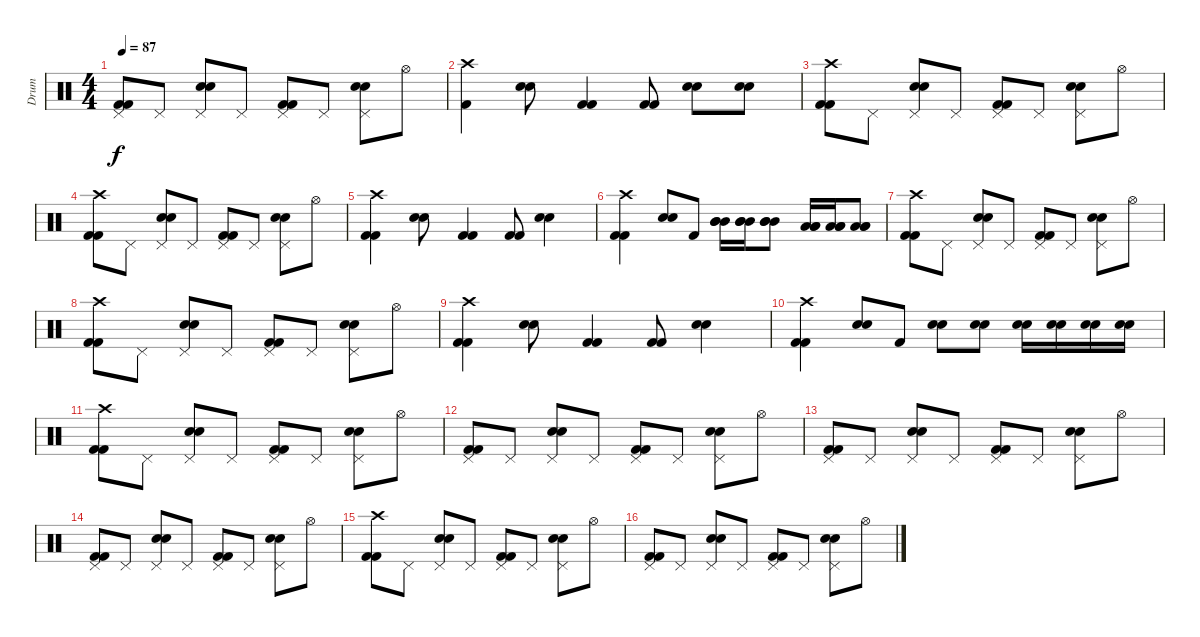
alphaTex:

\track ("Drum" "Drum") {instrument percussion}
\staff {score}
\articulation defaults
\ts (4 4)
\tempo 87
\clef neutral
\ks c
("Pedal Hi-Hat (hit)" "Kick (hit) 2" "Kick (hit) 2").8{dy f} "Pedal Hi-Hat (hit)".8 ("Pedal Hi-Hat (hit)" "Electric Snare (hit)" "Electric Snare (hit)").8 "Pedal Hi-Hat (hit)".8 ("Pedal Hi-Hat (hit)" "Kick (hit) 2" "Kick (hit) 2").8 "Pedal Hi-Hat (hit)".8 ("Pedal Hi-Hat (hit)" "Electric Snare (hit)" "Electric Snare (hit)").8 "Hi-Hat (open)".8 |
("Crash high (hit)" "Kick (hit) 2").4 ("Electric Snare (hit)" "Electric Snare (hit)").8 ("Kick (hit) 2" "Kick (hit) 2").4 ("Kick (hit) 2" "Kick (hit) 2").8 ("Electric Snare (hit)" "Electric Snare (hit)").8 ("Electric Snare (hit)" "Electric Snare (hit)").8 |
("Crash high (hit)" "Kick (hit) 2" "Kick (hit) 2").8 "Pedal Hi-Hat (hit)".8 ("Pedal Hi-Hat (hit)" "Electric Snare (hit)" "Electric Snare (hit)").8 "Pedal Hi-Hat (hit)".8 ("Pedal Hi-Hat (hit)" "Kick (hit) 2" "Kick (hit) 2").8 "Pedal Hi-Hat (hit)".8 ("Pedal Hi-Hat (hit)" "Electric Snare (hit)" "Electric Snare (hit)").8 "Hi-Hat (open)".8 |
("Crash high (hit)" "Kick (hit) 2" "Kick (hit) 2").8 "Pedal Hi-Hat (hit)".8 ("Pedal Hi-Hat (hit)" "Electric Snare (hit)" "Electric Snare (hit)").8 "Pedal Hi-Hat (hit)".8 ("Pedal Hi-Hat (hit)" "Kick (hit) 2" "Kick (hit) 2").8 "Pedal Hi-Hat (hit)".8 ("Pedal Hi-Hat (hit)" "Electric Snare (hit)" "Electric Snare (hit)").8 "Hi-Hat (open)".8 |
("Crash high (hit)" "Kick (hit) 2" "Kick (hit) 2").4 ("Electric Snare (hit)" "Electric Snare (hit)").8 ("Kick (hit) 2" "Kick (hit) 2").4 ("Kick (hit) 2" "Kick (hit) 2").8 ("Electric Snare (hit)" "Electric Snare (hit)").4 |
("Crash high (hit)" "Kick (hit) 2" "Kick (hit) 2").4 ("Electric Snare (hit)" "Electric Snare (hit)").8 "Kick (hit) 2".8 ("Mid Tom (hit)" "Mid Tom (hit)" "Mid Tom (hit)").16 ("Mid Tom (hit)" "Mid Tom (hit)" "Mid Tom (hit)").16 ("Mid Tom (hit)" "Mid Tom (hit)" "Mid Tom (hit)").8 ("Low Tom (hit)" "Low Tom (hit)" "Low Tom (hit)").16 ("Low Tom (hit)" "Low Tom (hit)" "Low Tom (hit)").16 ("Low Tom (hit)" "Low Tom (hit)" "Low Tom (hit)").8 |
("Crash high (hit)" "Kick (hit) 2" "Kick (hit) 2").8 "Pedal Hi-Hat (hit)".8 ("Pedal Hi-Hat (hit)" "Electric Snare (hit)" "Electric Snare (hit)").8 "Pedal Hi-Hat (hit)".8 ("Pedal Hi-Hat (hit)" "Kick (hit) 2" "Kick (hit) 2").8 "Pedal Hi-Hat (hit)".8 ("Pedal Hi-Hat (hit)" "Electric Snare (hit)" "Electric Snare (hit)").8 "Hi-Hat (open)".8 |
("Crash high (hit)" "Kick (hit) 2" "Kick (hit) 2").8 "Pedal Hi-Hat (hit)".8 ("Pedal Hi-Hat (hit)" "Electric Snare (hit)" "Electric Snare (hit)").8 "Pedal Hi-Hat (hit)".8 ("Pedal Hi-Hat (hit)" "Kick (hit) 2" "Kick (hit) 2").8 "Pedal Hi-Hat (hit)".8 ("Pedal Hi-Hat (hit)" "Electric Snare (hit)" "Electric Snare (hit)").8 "Hi-Hat (open)".8 |
("Crash high (hit)" "Kick (hit) 2" "Kick (hit) 2").4 ("Electric Snare (hit)" "Electric Snare (hit)").8 ("Kick (hit) 2" "Kick (hit) 2").4 ("Kick (hit) 2" "Kick (hit) 2").8 ("Electric Snare (hit)" "Electric Snare (hit)").4 |
("Crash high (hit)" "Kick (hit) 2" "Kick (hit) 2").4 ("Electric Snare (hit)" "Electric Snare (hit)").8 "Kick (hit) 2".8 ("Electric Snare (hit)" "Electric Snare (hit)").8 ("Electric Snare (hit)" "Electric Snare (hit)").8 ("Electric Snare (hit)" "Electric Snare (hit)").16 ("Electric Snare (hit)" "Electric Snare (hit)").16 ("Electric Snare (hit)" "Electric Snare (hit)").16 ("Electric Snare (hit)" "Electric Snare (hit)").16 |
("Crash high (hit)" "Kick (hit) 2" "Kick (hit) 2").8 "Pedal Hi-Hat (hit)".8 ("Pedal Hi-Hat (hit)" "Electric Snare (hit)" "Electric Snare (hit)").8 "Pedal Hi-Hat (hit)".8 ("Pedal Hi-Hat (hit)" "Kick (hit) 2" "Kick (hit) 2").8 "Pedal Hi-Hat (hit)".8 ("Pedal Hi-Hat (hit)" "Electric Snare (hit)" "Electric Snare (hit)").8 "Hi-Hat (open)".8 |
("Pedal Hi-Hat (hit)" "Kick (hit) 2" "Kick (hit) 2").8 "Pedal Hi-Hat (hit)".8 ("Pedal Hi-Hat (hit)" "Electric Snare (hit)" "Electric Snare (hit)").8 "Pedal Hi-Hat (hit)".8 ("Pedal Hi-Hat (hit)" "Kick (hit) 2" "Kick (hit) 2").8 "Pedal Hi-Hat (hit)".8 ("Pedal Hi-Hat (hit)" "Electric Snare (hit)" "Electric Snare (hit)").8 "Hi-Hat (open)".8 |
("Pedal Hi-Hat (hit)" "Kick (hit) 2" "Kick (hit) 2").8 "Pedal Hi-Hat (hit)".8 ("Pedal Hi-Hat (hit)" "Electric Snare (hit)" "Electric Snare (hit)").8 "Pedal Hi-Hat (hit)".8 ("Pedal Hi-Hat (hit)" "Kick (hit) 2" "Kick (hit) 2").8 "Pedal Hi-Hat (hit)".8 ("Pedal Hi-Hat (hit)" "Electric Snare (hit)" "Electric Snare (hit)").8 "Hi-Hat (open)".8 |
("Pedal Hi-Hat (hit)" "Kick (hit) 2" "Kick (hit) 2").8 "Pedal Hi-Hat (hit)".8 ("Pedal Hi-Hat (hit)" "Electric Snare (hit)" "Electric Snare (hit)").8 "Pedal Hi-Hat (hit)".8 ("Pedal Hi-Hat (hit)" "Kick (hit) 2" "Kick (hit) 2").8 "Pedal Hi-Hat (hit)".8 ("Pedal Hi-Hat (hit)" "Electric Snare (hit)" "Electric Snare (hit)").8 "Hi-Hat (open)".8 |
("Crash high (hit)" "Kick (hit) 2" "Kick (hit) 2").8 "Pedal Hi-Hat (hit)".8 ("Pedal Hi-Hat (hit)" "Electric Snare (hit)" "Electric Snare (hit)").8 "Pedal Hi-Hat (hit)".8 ("Pedal Hi-Hat (hit)" "Kick (hit) 2" "Kick (hit) 2").8 "Pedal Hi-Hat (hit)".8 ("Pedal Hi-Hat (hit)" "Electric Snare (hit)" "Electric Snare (hit)").8 "Hi-Hat (open)".8 |
("Pedal Hi-Hat (hit)" "Kick (hit) 2" "Kick (hit) 2").8 "Pedal Hi-Hat (hit)".8 ("Pedal Hi-Hat (hit)" "Electric Snare (hit)" "Electric Snare (hit)").8 "Pedal Hi-Hat (hit)".8 ("Pedal Hi-Hat (hit)" "Kick (hit) 2" "Kick (hit) 2").8 "Pedal Hi-Hat (hit)".8 ("Pedal Hi-Hat (hit)" "Electric Snare (hit)" "Electric Snare (hit)").8 "Hi-Hat (open)".8
